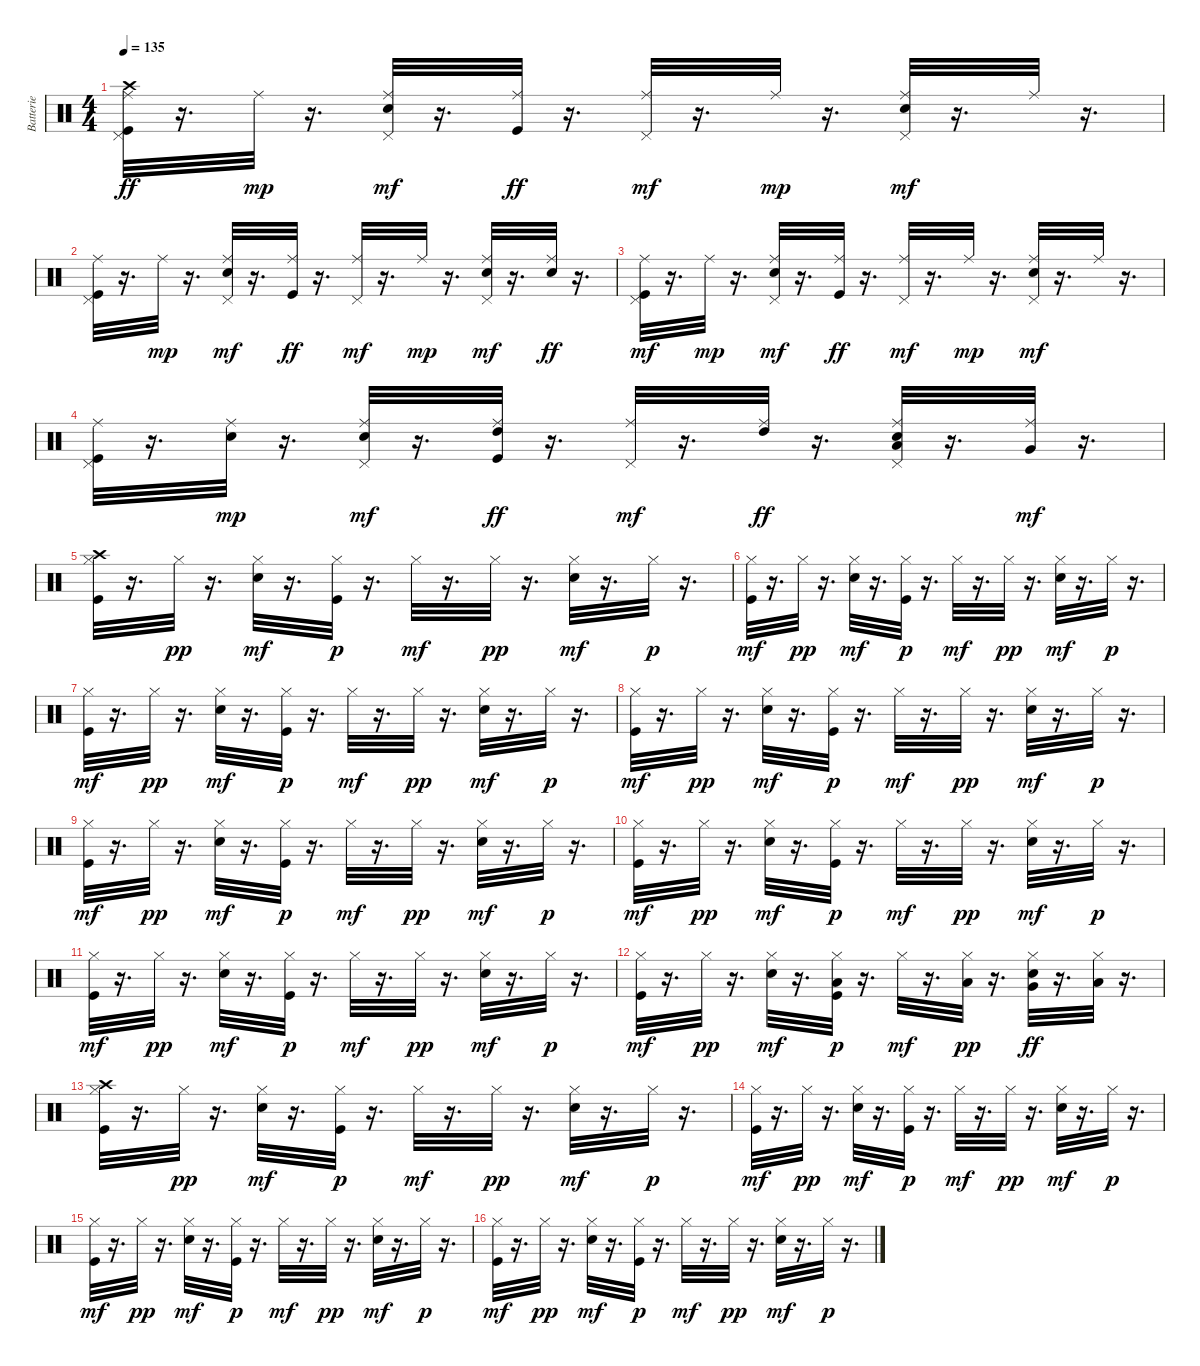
\track ("Batterie" "Batterie") {instrument percussion}
\staff {score}
\articulation defaults
\ts (4 4)
\tempo 135
\clef neutral
\ks c
("Kick (hit)" "Pedal Hi-Hat (hit)" "Ride (middle)" "Crash high (hit)").32{dy ff} r.16{d} "Ride (middle)".32{dy mp} r.16{d} ("Electric Snare (hit)" "Pedal Hi-Hat (hit)" "Ride (middle)").32{dy mf} r.16{d} ("Kick (hit)" "Ride (middle)").32{dy ff} r.16{d} ("Pedal Hi-Hat (hit)" "Ride (middle)").32{dy mf} r.16{d} "Ride (middle)".32{dy mp} r.16{d} ("Electric Snare (hit)" "Pedal Hi-Hat (hit)" "Ride (middle)").32{dy mf} r.16{d} "Ride (middle)".32 r.16{d} |
("Kick (hit)" "Pedal Hi-Hat (hit)" "Ride (middle)").32 r.16{d} "Ride (middle)".32{dy mp} r.16{d} ("Electric Snare (hit)" "Pedal Hi-Hat (hit)" "Ride (middle)").32{dy mf} r.16{d} ("Kick (hit)" "Ride (middle)").32{dy ff} r.16{d} ("Pedal Hi-Hat (hit)" "Ride (middle)").32{dy mf} r.16{d} "Ride (middle)".32{dy mp} r.16{d} ("Electric Snare (hit)" "Pedal Hi-Hat (hit)" "Ride (middle)").32{dy mf} r.16{d} ("Ride (middle)" "Electric Snare (hit)").32{dy ff} r.16{d} |
("Kick (hit)" "Pedal Hi-Hat (hit)" "Ride (middle)").32{dy mf} r.16{d} "Ride (middle)".32{dy mp} r.16{d} ("Electric Snare (hit)" "Pedal Hi-Hat (hit)" "Ride (middle)").32{dy mf} r.16{d} ("Kick (hit)" "Ride (middle)").32{dy ff} r.16{d} ("Pedal Hi-Hat (hit)" "Ride (middle)").32{dy mf} r.16{d} "Ride (middle)".32{dy mp} r.16{d} ("Electric Snare (hit)" "Pedal Hi-Hat (hit)" "Ride (middle)").32{dy mf} r.16{d} "Ride (middle)".32 r.16{d} |
("Kick (hit)" "Pedal Hi-Hat (hit)" "Ride (middle)").32 r.16{d} ("Ride (middle)" "Electric Snare (hit)").32{dy mp} r.16{d} ("Electric Snare (hit)" "Pedal Hi-Hat (hit)" "Ride (middle)").32{dy mf} r.16{d} ("Kick (hit)" "Ride (middle)" "High Tom (hit)").32{dy ff} r.16{d} ("Pedal Hi-Hat (hit)" "Ride (middle)").32{dy mf} r.16{d} ("Ride (middle)" "High Tom (hit)").32{dy ff} r.16{d} ("Electric Snare (hit)" "Pedal Hi-Hat (hit)" "Ride (middle)" "Low Tom (hit)").32 r.16{d} ("Ride (middle)" "Very Low Tom (hit)").32{dy mf} r.16{d} |
("Kick (hit)" "Hi-Hat (closed)" "Crash high (hit)").32 r.16{d} "Hi-Hat (closed)".32{dy pp} r.16{d} ("Electric Snare (hit)" "Hi-Hat (closed)").32{dy mf} r.16{d} ("Kick (hit)" "Hi-Hat (closed)").32{dy p} r.16{d} "Hi-Hat (closed)".32{dy mf} r.16{d} "Hi-Hat (closed)".32{dy pp} r.16{d} ("Electric Snare (hit)" "Hi-Hat (closed)").32{dy mf} r.16{d} "Hi-Hat (closed)".32{dy p} r.16{d} |
("Kick (hit)" "Hi-Hat (closed)").32{dy mf} r.16{d} "Hi-Hat (closed)".32{dy pp} r.16{d} ("Electric Snare (hit)" "Hi-Hat (closed)").32{dy mf} r.16{d} ("Kick (hit)" "Hi-Hat (closed)").32{dy p} r.16{d} "Hi-Hat (closed)".32{dy mf} r.16{d} "Hi-Hat (closed)".32{dy pp} r.16{d} ("Electric Snare (hit)" "Hi-Hat (closed)").32{dy mf} r.16{d} "Hi-Hat (closed)".32{dy p} r.16{d} |
("Kick (hit)" "Hi-Hat (closed)").32{dy mf} r.16{d} "Hi-Hat (closed)".32{dy pp} r.16{d} ("Electric Snare (hit)" "Hi-Hat (closed)").32{dy mf} r.16{d} ("Kick (hit)" "Hi-Hat (closed)").32{dy p} r.16{d} "Hi-Hat (closed)".32{dy mf} r.16{d} "Hi-Hat (closed)".32{dy pp} r.16{d} ("Electric Snare (hit)" "Hi-Hat (closed)").32{dy mf} r.16{d} "Hi-Hat (closed)".32{dy p} r.16{d} |
("Kick (hit)" "Hi-Hat (closed)").32{dy mf} r.16{d} "Hi-Hat (closed)".32{dy pp} r.16{d} ("Electric Snare (hit)" "Hi-Hat (closed)").32{dy mf} r.16{d} ("Kick (hit)" "Hi-Hat (closed)").32{dy p} r.16{d} "Hi-Hat (closed)".32{dy mf} r.16{d} "Hi-Hat (closed)".32{dy pp} r.16{d} ("Electric Snare (hit)" "Hi-Hat (closed)").32{dy mf} r.16{d} "Hi-Hat (closed)".32{dy p} r.16{d} |
("Kick (hit)" "Hi-Hat (closed)").32{dy mf} r.16{d} "Hi-Hat (closed)".32{dy pp} r.16{d} ("Electric Snare (hit)" "Hi-Hat (closed)").32{dy mf} r.16{d} ("Kick (hit)" "Hi-Hat (closed)").32{dy p} r.16{d} "Hi-Hat (closed)".32{dy mf} r.16{d} "Hi-Hat (closed)".32{dy pp} r.16{d} ("Electric Snare (hit)" "Hi-Hat (closed)").32{dy mf} r.16{d} "Hi-Hat (closed)".32{dy p} r.16{d} |
("Kick (hit)" "Hi-Hat (closed)").32{dy mf} r.16{d} "Hi-Hat (closed)".32{dy pp} r.16{d} ("Electric Snare (hit)" "Hi-Hat (closed)").32{dy mf} r.16{d} ("Kick (hit)" "Hi-Hat (closed)").32{dy p} r.16{d} "Hi-Hat (closed)".32{dy mf} r.16{d} "Hi-Hat (closed)".32{dy pp} r.16{d} ("Electric Snare (hit)" "Hi-Hat (closed)").32{dy mf} r.16{d} "Hi-Hat (closed)".32{dy p} r.16{d} |
("Kick (hit)" "Hi-Hat (closed)").32{dy mf} r.16{d} "Hi-Hat (closed)".32{dy pp} r.16{d} ("Electric Snare (hit)" "Hi-Hat (closed)").32{dy mf} r.16{d} ("Kick (hit)" "Hi-Hat (closed)").32{dy p} r.16{d} "Hi-Hat (closed)".32{dy mf} r.16{d} "Hi-Hat (closed)".32{dy pp} r.16{d} ("Electric Snare (hit)" "Hi-Hat (closed)").32{dy mf} r.16{d} "Hi-Hat (closed)".32{dy p} r.16{d} |
("Kick (hit)" "Hi-Hat (closed)").32{dy mf} r.16{d} "Hi-Hat (closed)".32{dy pp} r.16{d} ("Electric Snare (hit)" "Hi-Hat (closed)").32{dy mf} r.16{d} ("Kick (hit)" "Hi-Hat (closed)" "Low Tom (hit)").32{dy p} r.16{d} "Hi-Hat (closed)".32{dy mf} r.16{d} ("Hi-Hat (closed)" "Low Tom (hit)").32{dy pp} r.16{d} ("Electric Snare (hit)" "Hi-Hat (closed)" "Very Low Tom (hit)").32{dy ff} r.16{d} ("Hi-Hat (closed)" "Low Floor Tom (hit)").32 r.16{d} |
("Kick (hit)" "Hi-Hat (closed)" "Crash high (hit)").32 r.16{d} "Hi-Hat (closed)".32{dy pp} r.16{d} ("Electric Snare (hit)" "Hi-Hat (closed)").32{dy mf} r.16{d} ("Kick (hit)" "Hi-Hat (closed)").32{dy p} r.16{d} "Hi-Hat (closed)".32{dy mf} r.16{d} "Hi-Hat (closed)".32{dy pp} r.16{d} ("Electric Snare (hit)" "Hi-Hat (closed)").32{dy mf} r.16{d} "Hi-Hat (closed)".32{dy p} r.16{d} |
("Kick (hit)" "Hi-Hat (closed)").32{dy mf} r.16{d} "Hi-Hat (closed)".32{dy pp} r.16{d} ("Electric Snare (hit)" "Hi-Hat (closed)").32{dy mf} r.16{d} ("Kick (hit)" "Hi-Hat (closed)").32{dy p} r.16{d} "Hi-Hat (closed)".32{dy mf} r.16{d} "Hi-Hat (closed)".32{dy pp} r.16{d} ("Electric Snare (hit)" "Hi-Hat (closed)").32{dy mf} r.16{d} "Hi-Hat (closed)".32{dy p} r.16{d} |
("Kick (hit)" "Hi-Hat (closed)").32{dy mf} r.16{d} "Hi-Hat (closed)".32{dy pp} r.16{d} ("Electric Snare (hit)" "Hi-Hat (closed)").32{dy mf} r.16{d} ("Kick (hit)" "Hi-Hat (closed)").32{dy p} r.16{d} "Hi-Hat (closed)".32{dy mf} r.16{d} "Hi-Hat (closed)".32{dy pp} r.16{d} ("Electric Snare (hit)" "Hi-Hat (closed)").32{dy mf} r.16{d} "Hi-Hat (closed)".32{dy p} r.16{d} |
("Kick (hit)" "Hi-Hat (closed)").32{dy mf} r.16{d} "Hi-Hat (closed)".32{dy pp} r.16{d} ("Electric Snare (hit)" "Hi-Hat (closed)").32{dy mf} r.16{d} ("Kick (hit)" "Hi-Hat (closed)").32{dy p} r.16{d} "Hi-Hat (closed)".32{dy mf} r.16{d} "Hi-Hat (closed)".32{dy pp} r.16{d} ("Electric Snare (hit)" "Hi-Hat (closed)").32{dy mf} r.16{d} "Hi-Hat (closed)".32{dy p} r.16{d}
